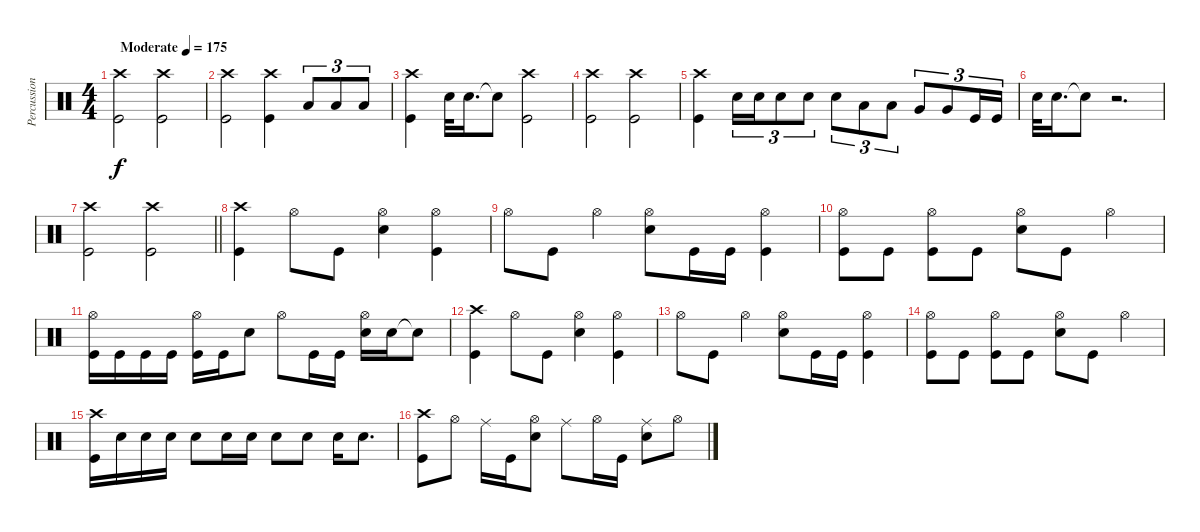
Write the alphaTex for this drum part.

\track ("Percussion" "Percussion") {instrument percussion}
\staff {score}
\articulation defaults
\ts (4 4)
\tempo (175 "Moderate")
\clef neutral
\ks c
("Crash high (hit)" "Kick (hit)").2{dy f} ("Crash high (hit)" "Kick (hit)").2 |
("Crash high (hit)" "Kick (hit)").2 ("Crash high (hit)" "Kick (hit)").4 "Low Tom (hit)".8{tu (3 2)} "Low Tom (hit)".8{tu (3 2)} "Low Tom (hit)".8{tu (3 2)} |
("Crash high (hit)" "Kick (hit)").4 "Electric Snare (hit)".32 "Electric Snare (hit)".16{d} "Snare (hit)"{t}.8 ("Crash high (hit)" "Kick (hit)").2 |
("Crash high (hit)" "Kick (hit)").2 ("Crash high (hit)" "Kick (hit)").2 |
("Crash high (hit)" "Kick (hit)").4 "Electric Snare (hit)".16{tu (3 2)} "Electric Snare (hit)".16{tu (3 2)} "Electric Snare (hit)".8{tu (3 2)} "Electric Snare (hit)".8{tu (3 2)} "Electric Snare (hit)".8{tu (3 2)} "Low Tom (hit)".8{tu (3 2)} "Low Tom (hit)".8{tu (3 2)} "Very Low Tom (hit)".8{tu (3 2)} "Very Low Tom (hit)".8{tu (3 2)} "Kick (hit)".16{tu (3 2)} "Kick (hit)".16{tu (3 2)} |
"Electric Snare (hit)".32 "Electric Snare (hit)".16{d} "Snare (hit)"{t}.8 r.2{d} |
\barLineRight lightlight
("Crash high (hit)" "Kick (hit)").2 ("Crash high (hit)" "Kick (hit)").2 |
("Crash high (hit)" "Kick (hit)").4 "Hi-Hat (open)".8 "Kick (hit)".8 ("Hi-Hat (open)" "Electric Snare (hit)").4 ("Hi-Hat (open)" "Kick (hit)").4 |
"Hi-Hat (open)".8 "Kick (hit)".8 "Hi-Hat (open)".4 ("Hi-Hat (open)" "Electric Snare (hit)").8 "Kick (hit)".16 "Kick (hit)".16 ("Hi-Hat (open)" "Kick (hit)").4 |
("Hi-Hat (open)" "Kick (hit)").8 "Kick (hit)".8 ("Hi-Hat (open)" "Kick (hit)").8 "Kick (hit)".8 ("Hi-Hat (open)" "Electric Snare (hit)").8 "Kick (hit)".8 "Hi-Hat (open)".4 |
("Hi-Hat (open)" "Kick (hit)").16 "Kick (hit)".16 "Kick (hit)".16 "Kick (hit)".16 ("Hi-Hat (open)" "Kick (hit)").16 "Kick (hit)".16 "Electric Snare (hit)".8 "Hi-Hat (open)".8 "Kick (hit)".16 "Kick (hit)".16 ("Hi-Hat (open)" "Electric Snare (hit)").16 "Electric Snare (hit)".16 "Snare (hit)"{t}.8 |
("Crash high (hit)" "Kick (hit)").4 "Hi-Hat (open)".8 "Kick (hit)".8 ("Hi-Hat (open)" "Electric Snare (hit)").4 ("Hi-Hat (open)" "Kick (hit)").4 |
"Hi-Hat (open)".8 "Kick (hit)".8 "Hi-Hat (open)".4 ("Hi-Hat (open)" "Electric Snare (hit)").8 "Kick (hit)".16 "Kick (hit)".16 ("Hi-Hat (open)" "Kick (hit)").4 |
("Hi-Hat (open)" "Kick (hit)").8 "Kick (hit)".8 ("Hi-Hat (open)" "Kick (hit)").8 "Kick (hit)".8 ("Hi-Hat (open)" "Electric Snare (hit)").8 "Kick (hit)".8 "Hi-Hat (open)".4 |
("Crash high (hit)" "Kick (hit)").16 "Electric Snare (hit)".16 "Electric Snare (hit)".16 "Electric Snare (hit)".16 "Electric Snare (hit)".8 "Electric Snare (hit)".16 "Electric Snare (hit)".16 "Electric Snare (hit)".8 "Electric Snare (hit)".8 "Electric Snare (hit)".16 "Electric Snare (hit)".8{d} |
("Crash high (hit)" "Kick (hit)").8 "Hi-Hat (open)".8 "Ride (middle)".16 "Kick (hit)".16 ("Hi-Hat (open)" "Electric Snare (hit)").8 "Ride (middle)".8 "Hi-Hat (open)".16 "Kick (hit)".16 ("Ride (middle)" "Electric Snare (hit)").8 "Hi-Hat (open)".8
